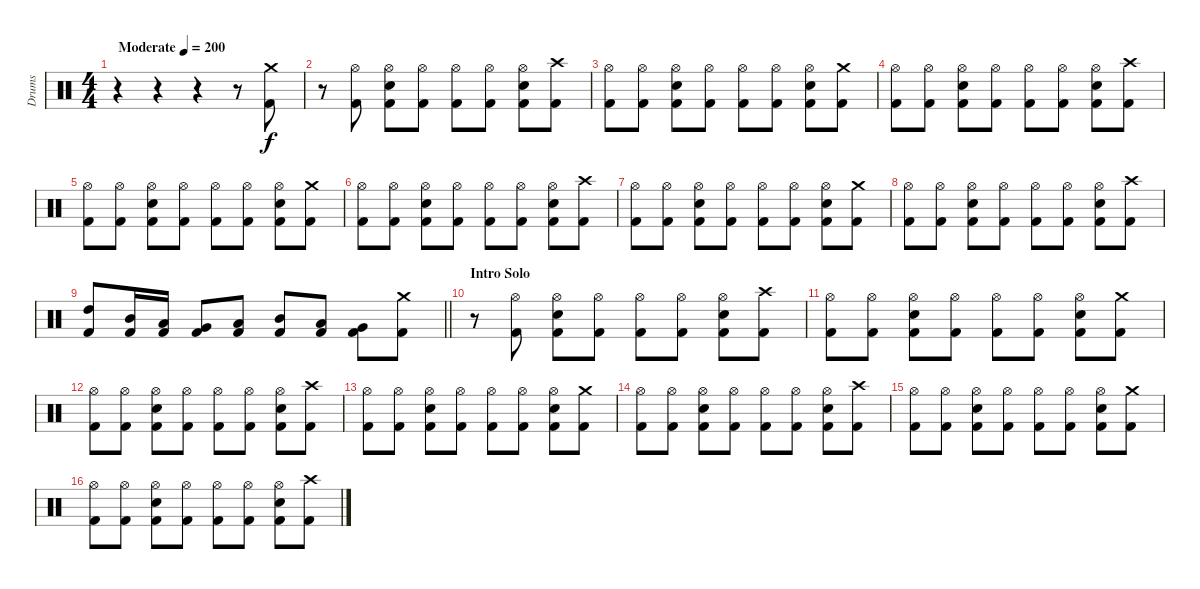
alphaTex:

\track ("Drums" "Drums") {instrument percussion}
\staff {score}
\articulation defaults
\ts (4 4)
\tempo (200 "Moderate")
\clef neutral
\ks c
r.4{dy f} r.4 r.4 r.8 ("Crash medium (hit)" "Kick (hit) 2").8 |
r.8 ("Hi-Hat (open)" "Kick (hit) 2").8 ("Hi-Hat (open)" "Electric Snare (hit)" "Kick (hit) 2").8 ("Hi-Hat (open)" "Kick (hit) 2").8 ("Hi-Hat (open)" "Kick (hit) 2").8 ("Hi-Hat (open)" "Kick (hit) 2").8 ("Hi-Hat (open)" "Electric Snare (hit)" "Kick (hit) 2").8 ("Crash high (hit)" "Kick (hit) 2").8 |
("Hi-Hat (open)" "Kick (hit) 2").8 ("Hi-Hat (open)" "Kick (hit) 2").8 ("Hi-Hat (open)" "Electric Snare (hit)" "Kick (hit) 2").8 ("Hi-Hat (open)" "Kick (hit) 2").8 ("Hi-Hat (open)" "Kick (hit) 2").8 ("Hi-Hat (open)" "Kick (hit) 2").8 ("Hi-Hat (open)" "Electric Snare (hit)" "Kick (hit) 2").8 ("Crash medium (hit)" "Kick (hit) 2").8 |
("Hi-Hat (open)" "Kick (hit) 2").8 ("Hi-Hat (open)" "Kick (hit) 2").8 ("Hi-Hat (open)" "Electric Snare (hit)" "Kick (hit) 2").8 ("Hi-Hat (open)" "Kick (hit) 2").8 ("Hi-Hat (open)" "Kick (hit) 2").8 ("Hi-Hat (open)" "Kick (hit) 2").8 ("Hi-Hat (open)" "Electric Snare (hit)" "Kick (hit) 2").8 ("Crash high (hit)" "Kick (hit) 2").8 |
("Hi-Hat (open)" "Kick (hit) 2").8 ("Hi-Hat (open)" "Kick (hit) 2").8 ("Hi-Hat (open)" "Electric Snare (hit)" "Kick (hit) 2").8 ("Hi-Hat (open)" "Kick (hit) 2").8 ("Hi-Hat (open)" "Kick (hit) 2").8 ("Hi-Hat (open)" "Kick (hit) 2").8 ("Hi-Hat (open)" "Electric Snare (hit)" "Kick (hit) 2").8 ("Crash medium (hit)" "Kick (hit) 2").8 |
("Hi-Hat (open)" "Kick (hit) 2").8 ("Hi-Hat (open)" "Kick (hit) 2").8 ("Hi-Hat (open)" "Electric Snare (hit)" "Kick (hit) 2").8 ("Hi-Hat (open)" "Kick (hit) 2").8 ("Hi-Hat (open)" "Kick (hit) 2").8 ("Hi-Hat (open)" "Kick (hit) 2").8 ("Hi-Hat (open)" "Electric Snare (hit)" "Kick (hit) 2").8 ("Crash high (hit)" "Kick (hit) 2").8 |
("Hi-Hat (open)" "Kick (hit) 2").8 ("Hi-Hat (open)" "Kick (hit) 2").8 ("Hi-Hat (open)" "Electric Snare (hit)" "Kick (hit) 2").8 ("Hi-Hat (open)" "Kick (hit) 2").8 ("Hi-Hat (open)" "Kick (hit) 2").8 ("Hi-Hat (open)" "Kick (hit) 2").8 ("Hi-Hat (open)" "Electric Snare (hit)" "Kick (hit) 2").8 ("Crash medium (hit)" "Kick (hit) 2").8 |
("Hi-Hat (open)" "Kick (hit) 2").8 ("Hi-Hat (open)" "Kick (hit) 2").8 ("Hi-Hat (open)" "Electric Snare (hit)" "Kick (hit) 2").8 ("Hi-Hat (open)" "Kick (hit) 2").8 ("Hi-Hat (open)" "Kick (hit) 2").8 ("Hi-Hat (open)" "Kick (hit) 2").8 ("Hi-Hat (open)" "Electric Snare (hit)" "Kick (hit) 2").8 ("Crash high (hit)" "Kick (hit) 2").8 |
\barLineRight lightlight
("High Tom (hit)" "Kick (hit) 2").8 ("Mid Tom (hit)" "Kick (hit) 2").16 ("Low Tom (hit)" "Kick (hit) 2").16 ("Very Low Tom (hit)" "Kick (hit) 2").8 ("Low Floor Tom (hit)" "Kick (hit) 2").8 ("Mid Tom (hit)" "Kick (hit) 2").8 ("Low Tom (hit)" "Kick (hit) 2").8 ("Very Low Tom (hit)" "Kick (hit) 2").8 ("Crash medium (hit)" "Kick (hit) 2").8 |
\section ("" "Intro Solo")
r.8 ("Hi-Hat (open)" "Kick (hit) 2").8 ("Hi-Hat (open)" "Electric Snare (hit)" "Kick (hit) 2").8 ("Hi-Hat (open)" "Kick (hit) 2").8 ("Hi-Hat (open)" "Kick (hit) 2").8 ("Hi-Hat (open)" "Kick (hit) 2").8 ("Hi-Hat (open)" "Electric Snare (hit)" "Kick (hit) 2").8 ("Crash high (hit)" "Kick (hit) 2").8 |
("Hi-Hat (open)" "Kick (hit) 2").8 ("Hi-Hat (open)" "Kick (hit) 2").8 ("Hi-Hat (open)" "Electric Snare (hit)" "Kick (hit) 2").8 ("Hi-Hat (open)" "Kick (hit) 2").8 ("Hi-Hat (open)" "Kick (hit) 2").8 ("Hi-Hat (open)" "Kick (hit) 2").8 ("Hi-Hat (open)" "Electric Snare (hit)" "Kick (hit) 2").8 ("Crash medium (hit)" "Kick (hit) 2").8 |
("Hi-Hat (open)" "Kick (hit) 2").8 ("Hi-Hat (open)" "Kick (hit) 2").8 ("Hi-Hat (open)" "Electric Snare (hit)" "Kick (hit) 2").8 ("Hi-Hat (open)" "Kick (hit) 2").8 ("Hi-Hat (open)" "Kick (hit) 2").8 ("Hi-Hat (open)" "Kick (hit) 2").8 ("Hi-Hat (open)" "Electric Snare (hit)" "Kick (hit) 2").8 ("Crash high (hit)" "Kick (hit) 2").8 |
("Hi-Hat (open)" "Kick (hit) 2").8 ("Hi-Hat (open)" "Kick (hit) 2").8 ("Hi-Hat (open)" "Electric Snare (hit)" "Kick (hit) 2").8 ("Hi-Hat (open)" "Kick (hit) 2").8 ("Hi-Hat (open)" "Kick (hit) 2").8 ("Hi-Hat (open)" "Kick (hit) 2").8 ("Hi-Hat (open)" "Electric Snare (hit)" "Kick (hit) 2").8 ("Crash medium (hit)" "Kick (hit) 2").8 |
("Hi-Hat (open)" "Kick (hit) 2").8 ("Hi-Hat (open)" "Kick (hit) 2").8 ("Hi-Hat (open)" "Electric Snare (hit)" "Kick (hit) 2").8 ("Hi-Hat (open)" "Kick (hit) 2").8 ("Hi-Hat (open)" "Kick (hit) 2").8 ("Hi-Hat (open)" "Kick (hit) 2").8 ("Hi-Hat (open)" "Electric Snare (hit)" "Kick (hit) 2").8 ("Crash high (hit)" "Kick (hit) 2").8 |
("Hi-Hat (open)" "Kick (hit) 2").8 ("Hi-Hat (open)" "Kick (hit) 2").8 ("Hi-Hat (open)" "Electric Snare (hit)" "Kick (hit) 2").8 ("Hi-Hat (open)" "Kick (hit) 2").8 ("Hi-Hat (open)" "Kick (hit) 2").8 ("Hi-Hat (open)" "Kick (hit) 2").8 ("Hi-Hat (open)" "Electric Snare (hit)" "Kick (hit) 2").8 ("Crash medium (hit)" "Kick (hit) 2").8 |
("Hi-Hat (open)" "Kick (hit) 2").8 ("Hi-Hat (open)" "Kick (hit) 2").8 ("Hi-Hat (open)" "Electric Snare (hit)" "Kick (hit) 2").8 ("Hi-Hat (open)" "Kick (hit) 2").8 ("Hi-Hat (open)" "Kick (hit) 2").8 ("Hi-Hat (open)" "Kick (hit) 2").8 ("Hi-Hat (open)" "Electric Snare (hit)" "Kick (hit) 2").8 ("Crash high (hit)" "Kick (hit) 2").8
